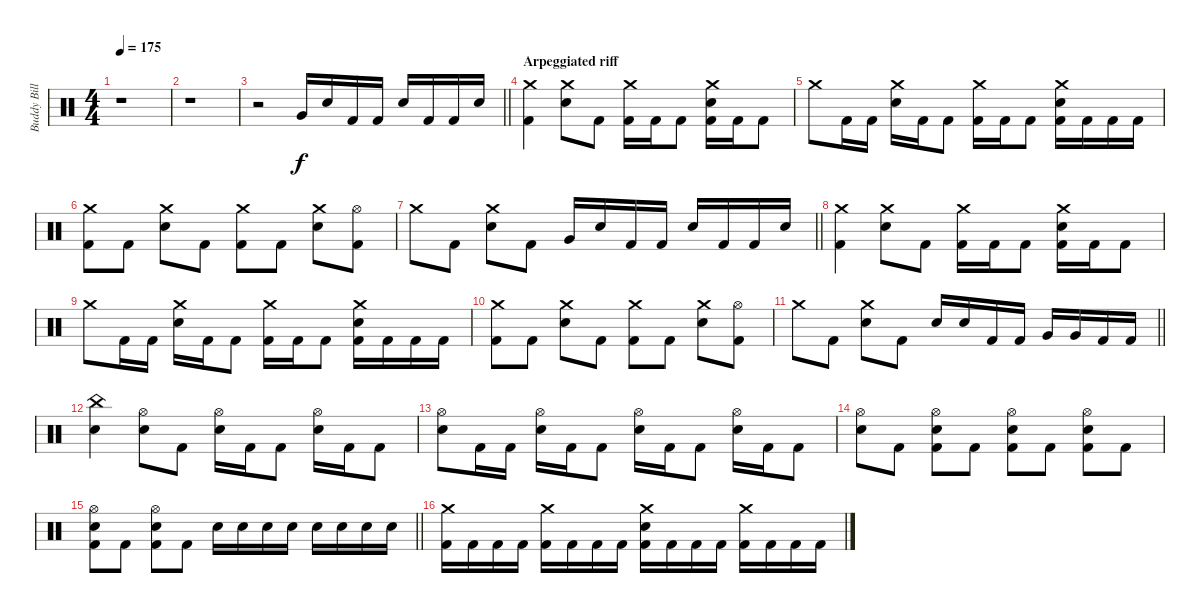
\track ("Buddy Bill" "Buddy Bill") {instrument percussion}
\staff {score}
\articulation defaults
\ts (4 4)
\tempo 175
\clef neutral
\ks c
r.1{dy f} |
r.1 |
\barLineRight lightlight
r.2 "Very Low Tom (hit)".16 "Snare (hit) 2".16 "Kick (hit) 2".16 "Kick (hit) 2".16 "Snare (hit) 2".16 "Kick (hit) 2".16 "Kick (hit) 2".16 "Snare (hit) 2".16 |
\section ("" "Arpeggiated riff")
("Crash medium (hit)" "Kick (hit) 2").4 ("Crash medium (hit)" "Snare (hit) 2").8 "Kick (hit) 2".8 ("Crash medium (hit)" "Kick (hit) 2").16 "Kick (hit) 2".16 "Kick (hit) 2".8 ("Crash medium (hit)" "Snare (hit) 2" "Kick (hit) 2").16 "Kick (hit) 2".16 "Kick (hit) 2".8 |
"Crash medium (hit)".8 "Kick (hit) 2".16 "Kick (hit) 2".16 ("Crash medium (hit)" "Snare (hit) 2").16 "Kick (hit) 2".16 "Kick (hit) 2".8 ("Crash medium (hit)" "Kick (hit) 2").16 "Kick (hit) 2".16 "Kick (hit) 2".8 ("Crash medium (hit)" "Snare (hit) 2" "Kick (hit) 2").16 "Kick (hit) 2".16 "Kick (hit) 2".16 "Kick (hit) 2".16 |
("Crash medium (hit)" "Kick (hit) 2").8 "Kick (hit) 2".8 ("Crash medium (hit)" "Snare (hit) 2").8 "Kick (hit) 2".8 ("Crash medium (hit)" "Kick (hit) 2").8 "Kick (hit) 2".8 ("Crash medium (hit)" "Snare (hit) 2").8 ("Hi-Hat (open)" "Kick (hit) 2").8 |
\barLineRight lightlight "Crash medium (hit)".8 "Kick (hit) 2".8
("Crash medium (hit)" "Snare (hit) 2").8 "Kick (hit) 2".8 "Very Low Tom (hit)".16 "Snare (hit) 2".16 "Kick (hit) 2".16 "Kick (hit) 2".16 "Snare (hit) 2".16 "Kick (hit) 2".16 "Kick (hit) 2".16 "Snare (hit) 2".16 |
("Crash medium (hit)" "Kick (hit) 2").4 ("Crash medium (hit)" "Snare (hit) 2").8 "Kick (hit) 2".8 ("Crash medium (hit)" "Kick (hit) 2").16 "Kick (hit) 2".16 "Kick (hit) 2".8 ("Crash medium (hit)" "Snare (hit) 2" "Kick (hit) 2").16 "Kick (hit) 2".16 "Kick (hit) 2".8 |
"Crash medium (hit)".8 "Kick (hit) 2".16 "Kick (hit) 2".16 ("Crash medium (hit)" "Snare (hit) 2").16 "Kick (hit) 2".16 "Kick (hit) 2".8 ("Crash medium (hit)" "Kick (hit) 2").16 "Kick (hit) 2".16 "Kick (hit) 2".8 ("Crash medium (hit)" "Snare (hit) 2" "Kick (hit) 2").16 "Kick (hit) 2".16 "Kick (hit) 2".16 "Kick (hit) 2".16 |
("Crash medium (hit)" "Kick (hit) 2").8 "Kick (hit) 2".8 ("Crash medium (hit)" "Snare (hit) 2").8 "Kick (hit) 2".8 ("Crash medium (hit)" "Kick (hit) 2").8 "Kick (hit) 2".8 ("Crash medium (hit)" "Snare (hit) 2").8 ("Hi-Hat (open)" "Kick (hit) 2").8 |
\barLineRight lightlight "Crash medium (hit)".8 "Kick (hit) 2".8
("Crash medium (hit)" "Snare (hit) 2").8 "Kick (hit) 2".8 "Snare (hit) 2".16 "Snare (hit) 2".16 "Kick (hit) 2".16 "Kick (hit) 2".16 "Very Low Tom (hit)".16 "Very Low Tom (hit)".16 "Kick (hit) 2".16 "Kick (hit) 2".16 |
("China (hit)" "Snare (hit) 2").4 ("Hi-Hat (open)" "Snare (hit) 2").8 "Kick (hit) 2".8 ("Hi-Hat (open)" "Snare (hit) 2").16 "Kick (hit) 2".16 "Kick (hit) 2".8 ("Hi-Hat (open)" "Snare (hit) 2").16 "Kick (hit) 2".16 "Kick (hit) 2".8 |
("Hi-Hat (open)" "Snare (hit) 2").8 "Kick (hit) 2".16 "Kick (hit) 2".16 ("Hi-Hat (open)" "Snare (hit) 2").16 "Kick (hit) 2".16 "Kick (hit) 2".8 ("Hi-Hat (open)" "Snare (hit) 2").16 "Kick (hit) 2".16 "Kick (hit) 2".8 ("Hi-Hat (open)" "Snare (hit) 2").16 "Kick (hit) 2".16 "Kick (hit) 2".8 |
("Hi-Hat (open)" "Snare (hit) 2").8 "Kick (hit) 2".8 ("Hi-Hat (open)" "Snare (hit) 2" "Kick (hit) 2").8 "Kick (hit) 2".8 ("Hi-Hat (open)" "Snare (hit) 2" "Kick (hit) 2").8 "Kick (hit) 2".8 ("Hi-Hat (open)" "Snare (hit) 2" "Kick (hit) 2").8 "Kick (hit) 2".8 |
\barLineRight lightlight
("Hi-Hat (open)" "Snare (hit) 2" "Kick (hit) 2").8 "Kick (hit) 2".8 ("Hi-Hat (open)" "Snare (hit) 2" "Kick (hit) 2").8 "Kick (hit) 2".8 "Snare (hit) 2".16 "Snare (hit) 2".16 "Snare (hit) 2".16 "Snare (hit) 2".16 "Snare (hit) 2".16 "Snare (hit) 2".16 "Snare (hit) 2".16 "Snare (hit) 2".16 |
("Crash medium (hit)" "Kick (hit) 2").16 "Kick (hit) 2".16 "Kick (hit) 2".16 "Kick (hit) 2".16 ("Crash medium (hit)" "Kick (hit) 2").16 "Kick (hit) 2".16 "Kick (hit) 2".16 "Kick (hit) 2".16 ("Crash medium (hit)" "Snare (hit) 2" "Kick (hit) 2").16 "Kick (hit) 2".16 "Kick (hit) 2".16 "Kick (hit) 2".16 ("Crash medium (hit)" "Kick (hit) 2").16 "Kick (hit) 2".16 "Kick (hit) 2".16 "Kick (hit) 2".16
